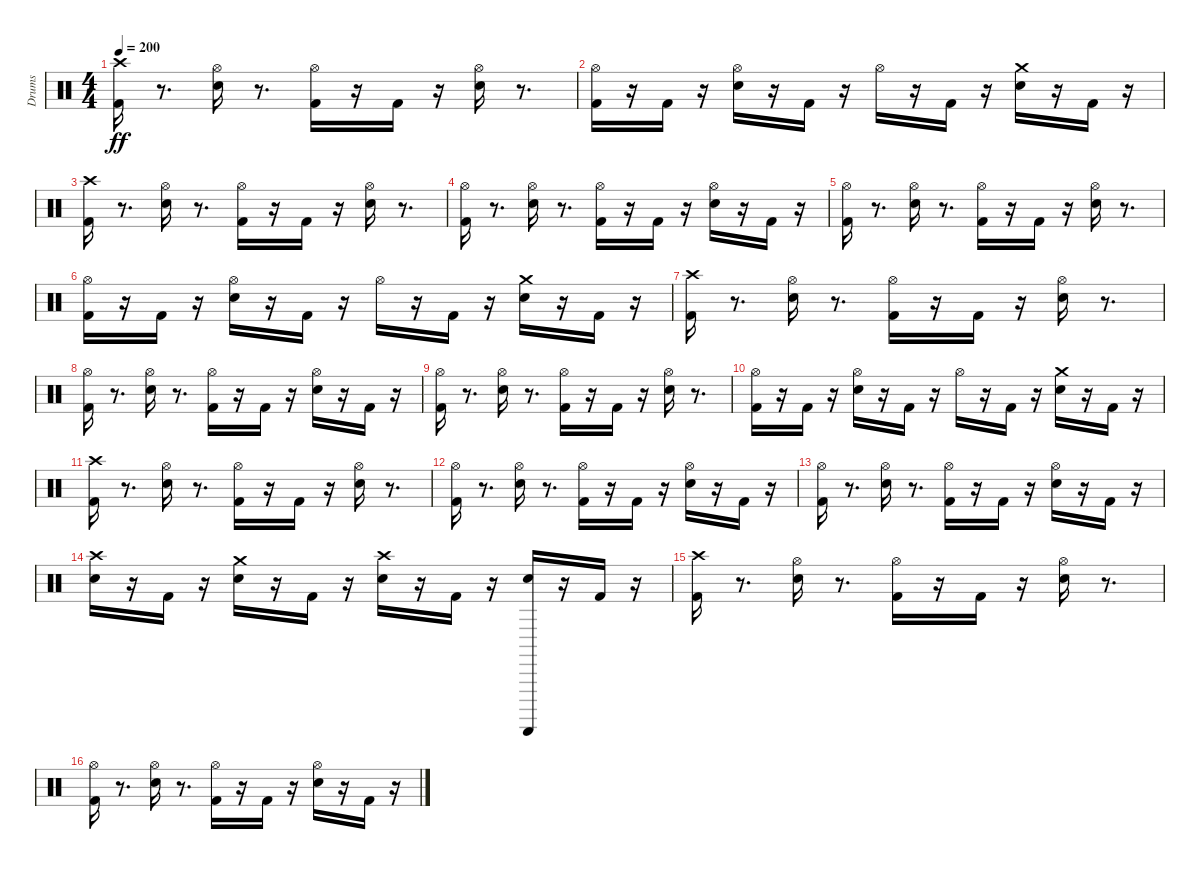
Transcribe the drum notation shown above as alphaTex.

\track ("Drums" "Drums") {instrument percussion}
\staff {score}
\articulation defaults
\ts (4 4)
\tempo 200
\clef neutral
\ks c
("Kick (hit) 2" "Crash high (hit)").16{dy ff} r.8{d} ("Snare (hit) 2" "Hi-Hat (open)").16 r.8{d} ("Kick (hit) 2" "Hi-Hat (open)").16 r.16 "Kick (hit) 2".16 r.16 ("Snare (hit) 2" "Hi-Hat (open)").16 r.8{d} |
("Kick (hit) 2" "Hi-Hat (open)").16 r.16 "Kick (hit) 2".16 r.16 ("Snare (hit) 2" "Hi-Hat (open)").16 r.16 "Kick (hit) 2".16 r.16 "Hi-Hat (open)".16 r.16 "Kick (hit) 2".16 r.16 ("Snare (hit) 2" "Crash medium (hit)").16 r.16 "Kick (hit) 2".16 r.16 |
("Kick (hit) 2" "Crash high (hit)").16 r.8{d} ("Snare (hit) 2" "Hi-Hat (open)").16 r.8{d} ("Kick (hit) 2" "Hi-Hat (open)").16 r.16 "Kick (hit) 2".16 r.16 ("Snare (hit) 2" "Hi-Hat (open)").16 r.8{d} |
("Kick (hit) 2" "Hi-Hat (open)").16 r.8{d} ("Snare (hit) 2" "Hi-Hat (open)").16 r.8{d} ("Kick (hit) 2" "Hi-Hat (open)").16 r.16 "Kick (hit) 2".16 r.16 ("Snare (hit) 2" "Hi-Hat (open)").16 r.16 "Kick (hit) 2".16 r.16 |
("Kick (hit) 2" "Hi-Hat (open)").16 r.8{d} ("Snare (hit) 2" "Hi-Hat (open)").16 r.8{d} ("Kick (hit) 2" "Hi-Hat (open)").16 r.16 "Kick (hit) 2".16 r.16 ("Snare (hit) 2" "Hi-Hat (open)").16 r.8{d} |
("Kick (hit) 2" "Hi-Hat (open)").16 r.16 "Kick (hit) 2".16 r.16 ("Snare (hit) 2" "Hi-Hat (open)").16 r.16 "Kick (hit) 2".16 r.16 "Hi-Hat (open)".16 r.16 "Kick (hit) 2".16 r.16 ("Snare (hit) 2" "Crash medium (hit)").16 r.16 "Kick (hit) 2".16 r.16 |
("Kick (hit) 2" "Crash high (hit)").16 r.8{d} ("Snare (hit) 2" "Hi-Hat (open)").16 r.8{d} ("Kick (hit) 2" "Hi-Hat (open)").16 r.16 "Kick (hit) 2".16 r.16 ("Snare (hit) 2" "Hi-Hat (open)").16 r.8{d} |
("Kick (hit) 2" "Hi-Hat (open)").16 r.8{d} ("Snare (hit) 2" "Hi-Hat (open)").16 r.8{d} ("Kick (hit) 2" "Hi-Hat (open)").16 r.16 "Kick (hit) 2".16 r.16 ("Snare (hit) 2" "Hi-Hat (open)").16 r.16 "Kick (hit) 2".16 r.16 |
("Kick (hit) 2" "Hi-Hat (open)").16 r.8{d} ("Snare (hit) 2" "Hi-Hat (open)").16 r.8{d} ("Kick (hit) 2" "Hi-Hat (open)").16 r.16 "Kick (hit) 2".16 r.16 ("Snare (hit) 2" "Hi-Hat (open)").16 r.8{d} |
("Kick (hit) 2" "Hi-Hat (open)").16 r.16 "Kick (hit) 2".16 r.16 ("Snare (hit) 2" "Hi-Hat (open)").16 r.16 "Kick (hit) 2".16 r.16 "Hi-Hat (open)".16 r.16 "Kick (hit) 2".16 r.16 ("Snare (hit) 2" "Crash medium (hit)").16 r.16 "Kick (hit) 2".16 r.16 |
("Kick (hit) 2" "Crash high (hit)").16 r.8{d} ("Snare (hit) 2" "Hi-Hat (open)").16 r.8{d} ("Kick (hit) 2" "Hi-Hat (open)").16 r.16 "Kick (hit) 2".16 r.16 ("Snare (hit) 2" "Hi-Hat (open)").16 r.8{d} |
("Kick (hit) 2" "Hi-Hat (open)").16 r.8{d} ("Snare (hit) 2" "Hi-Hat (open)").16 r.8{d} ("Kick (hit) 2" "Hi-Hat (open)").16 r.16 "Kick (hit) 2".16 r.16 ("Snare (hit) 2" "Hi-Hat (open)").16 r.16 "Kick (hit) 2".16 r.16 |
("Kick (hit) 2" "Hi-Hat (open)").16 r.8{d} ("Snare (hit) 2" "Hi-Hat (open)").16 r.8{d} ("Kick (hit) 2" "Hi-Hat (open)").16 r.16 "Kick (hit) 2".16 r.16 ("Snare (hit) 2" "Hi-Hat (open)").16 r.16 "Kick (hit) 2".16 r.16 |
("Snare (hit) 2" "Crash high (hit)").16 r.16 "Kick (hit) 2".16 r.16 ("Snare (hit) 2" "Crash medium (hit)").16 r.16 "Kick (hit) 2".16 r.16 ("Snare (hit) 2" "Crash high (hit)").16 r.16 "Kick (hit) 2".16 r.16 ("Snare (hit) 2" "Guiro (scrap-return)").16 r.16 "Kick (hit) 2".16 r.16 |
("Kick (hit) 2" "Crash high (hit)").16 r.8{d} ("Snare (hit) 2" "Hi-Hat (open)").16 r.8{d} ("Kick (hit) 2" "Hi-Hat (open)").16 r.16 "Kick (hit) 2".16 r.16 ("Snare (hit) 2" "Hi-Hat (open)").16 r.8{d} |
("Kick (hit) 2" "Hi-Hat (open)").16 r.8{d} ("Snare (hit) 2" "Hi-Hat (open)").16 r.8{d} ("Kick (hit) 2" "Hi-Hat (open)").16 r.16 "Kick (hit) 2".16 r.16 ("Snare (hit) 2" "Hi-Hat (open)").16 r.16 "Kick (hit) 2".16 r.16
